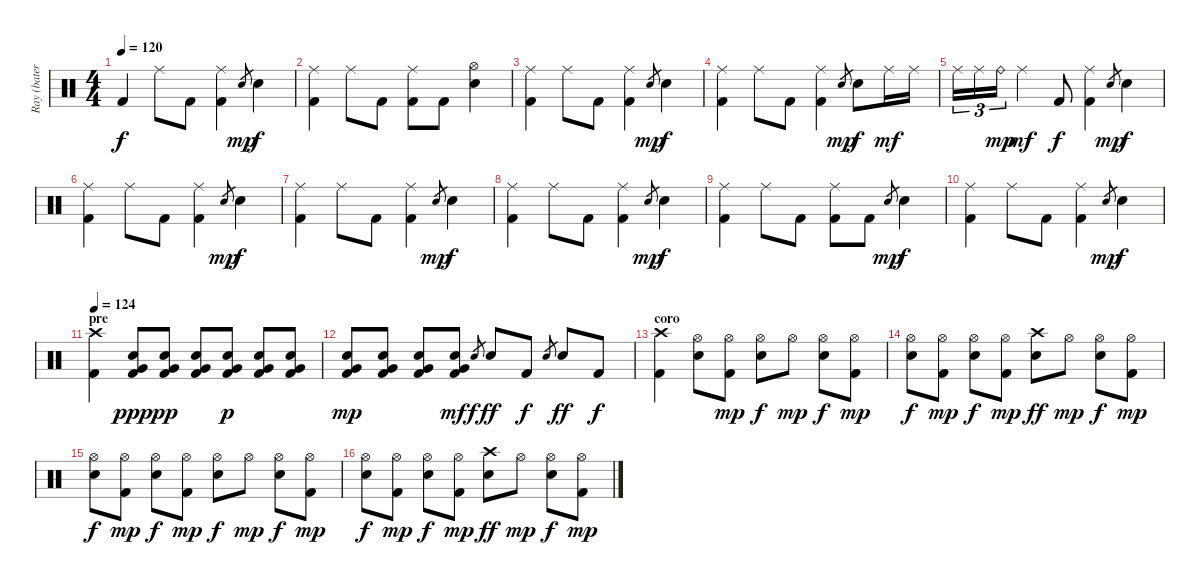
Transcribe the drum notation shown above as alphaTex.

\track ("Ray (batería)" "Ray (bater") {instrument percussion}
\staff {score}
\articulation defaults
\ts (4 4)
\tempo 120
\clef neutral
\ks c "Kick (hit) 2".4{dy f} "Ride (middle)".8 "Kick (hit) 2".8
("Ride (middle)" "Kick (hit) 2").4 "Snare (hit) 2".8{gr dy mp} "Snare (hit) 2".4{dy f} |
("Ride (middle)" "Kick (hit) 2").4 "Ride (middle)".8 "Kick (hit) 2".8 ("Ride (middle)" "Kick (hit) 2").8 "Kick (hit) 2".8 ("Hi-Hat (open)" "Snare (hit) 2").4 |
("Ride (middle)" "Kick (hit) 2").4 "Ride (middle)".8 "Kick (hit) 2".8 ("Ride (middle)" "Kick (hit) 2").4 "Snare (hit) 2".8{gr dy mp} "Snare (hit) 2".4{dy f} |
("Ride (middle)" "Kick (hit) 2").4 "Ride (middle)".8 "Kick (hit) 2".8 ("Ride (middle)" "Kick (hit) 2").4 "Snare (hit) 2".8{gr dy mp} "Snare (hit) 2".8{dy f} "Ride (middle)".16{dy mf} "Ride (middle)".16 |
"Ride (middle)".16{tu (3 2)} "Ride (middle)".16{tu (3 2)} "Ride (bell)".16{tu (3 2) dy mp} "Ride (middle)".4{dy mf} "Kick (hit) 2".8{dy f} ("Ride (middle)" "Kick (hit) 2").4 "Snare (hit) 2".8{gr dy mp} "Snare (hit) 2".4{dy f} |
("Ride (middle)" "Kick (hit) 2").4 "Ride (middle)".8 "Kick (hit) 2".8 ("Ride (middle)" "Kick (hit) 2").4 "Snare (hit) 2".8{gr dy mp} "Snare (hit) 2".4{dy f} |
("Ride (middle)" "Kick (hit) 2").4 "Ride (middle)".8 "Kick (hit) 2".8 ("Ride (middle)" "Kick (hit) 2").4 "Snare (hit) 2".8{gr dy mp} "Snare (hit) 2".4{dy f} |
("Ride (middle)" "Kick (hit) 2").4 "Ride (middle)".8 "Kick (hit) 2".8 ("Ride (middle)" "Kick (hit) 2").4 "Snare (hit) 2".8{gr dy mp} "Snare (hit) 2".4{dy f} |
("Ride (middle)" "Kick (hit) 2").4 "Ride (middle)".8 "Kick (hit) 2".8 ("Ride (middle)" "Kick (hit) 2").8 "Kick (hit) 2".8 "Snare (hit) 2".8{gr dy mp} "Snare (hit) 2".4{dy f} |
("Ride (middle)" "Kick (hit) 2").4 "Ride (middle)".8 "Kick (hit) 2".8 ("Ride (middle)" "Kick (hit) 2").4 "Snare (hit) 2".8{gr dy mp} "Snare (hit) 2".4{dy f} |
\section ("" "pre")
\tempo 124
("Crash high (hit)" "Kick (hit) 2").4 ("Snare (hit) 2" "Very Low Tom (hit)" "Kick (hit) 2").8{dy ppp} ("Snare (hit) 2" "Very Low Tom (hit)" "Kick (hit) 2").8{dy pp} ("Snare (hit) 2" "Very Low Tom (hit)" "Kick (hit) 2").8 ("Snare (hit) 2" "Very Low Tom (hit)" "Kick (hit) 2").8{dy p} ("Snare (hit) 2" "Very Low Tom (hit)" "Kick (hit) 2").8 ("Snare (hit) 2" "Very Low Tom (hit)" "Kick (hit) 2").8 |
("Snare (hit) 2" "Very Low Tom (hit)" "Kick (hit) 2").8{dy mp} ("Snare (hit) 2" "Very Low Tom (hit)" "Kick (hit) 2").8 ("Snare (hit) 2" "Very Low Tom (hit)" "Kick (hit) 2").8 ("Snare (hit) 2" "Very Low Tom (hit)" "Kick (hit) 2").8{dy mf} "Snare (hit) 2".8{gr dy f} "Snare (hit) 2".8{dy ff} "Kick (hit) 2".8{dy f} "Snare (hit) 2".8{gr} "Snare (hit) 2".8{dy ff} "Kick (hit) 2".8{dy f} |
\section ("" "coro")
("Crash high (hit)" "Kick (hit) 2").4 ("Hi-Hat (open)" "Snare (hit) 2").8 ("Hi-Hat (open)" "Kick (hit) 2").8{dy mp} ("Hi-Hat (open)" "Snare (hit) 2").8{dy f} "Hi-Hat (open)".8{dy mp} ("Hi-Hat (open)" "Snare (hit) 2").8{dy f} ("Hi-Hat (open)" "Kick (hit) 2").8{dy mp} |
("Hi-Hat (open)" "Snare (hit) 2").8{dy f} ("Hi-Hat (open)" "Kick (hit) 2").8{dy mp} ("Hi-Hat (open)" "Snare (hit) 2").8{dy f} ("Hi-Hat (open)" "Kick (hit) 2").8{dy mp} ("Crash high (hit)" "Snare (hit) 2").8{dy ff} "Hi-Hat (open)".8{dy mp} ("Hi-Hat (open)" "Snare (hit) 2").8{dy f} ("Hi-Hat (open)" "Kick (hit) 2").8{dy mp} |
("Hi-Hat (open)" "Snare (hit) 2").8{dy f} ("Hi-Hat (open)" "Kick (hit) 2").8{dy mp} ("Hi-Hat (open)" "Snare (hit) 2").8{dy f} ("Hi-Hat (open)" "Kick (hit) 2").8{dy mp} ("Hi-Hat (open)" "Snare (hit) 2").8{dy f} "Hi-Hat (open)".8{dy mp} ("Hi-Hat (open)" "Snare (hit) 2").8{dy f} ("Hi-Hat (open)" "Kick (hit) 2").8{dy mp} |
("Hi-Hat (open)" "Snare (hit) 2").8{dy f} ("Hi-Hat (open)" "Kick (hit) 2").8{dy mp} ("Hi-Hat (open)" "Snare (hit) 2").8{dy f} ("Hi-Hat (open)" "Kick (hit) 2").8{dy mp} ("Crash high (hit)" "Snare (hit) 2").8{dy ff} "Hi-Hat (open)".8{dy mp} ("Hi-Hat (open)" "Snare (hit) 2").8{dy f} ("Hi-Hat (open)" "Kick (hit) 2").8{dy mp}
